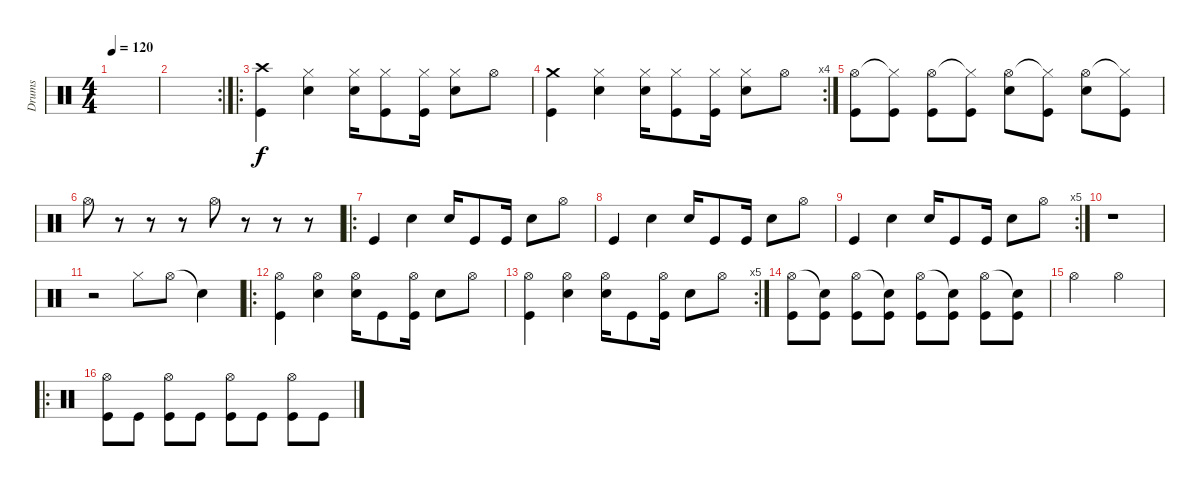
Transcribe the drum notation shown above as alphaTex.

\track ("Drums" "Drums") {instrument percussion}
\staff {score}
\articulation defaults
\ts (4 4)
\tempo 120
\clef neutral
\ks c
|
\rc 2
|
\ro
("Crash high (hit)" "Kick (hit)").4 ("Hi-Hat (closed)" "Snare (hit) 2").4 ("Hi-Hat (closed)" "Snare (hit) 2").16 ("Hi-Hat (closed)" "Kick (hit)").8 ("Hi-Hat (closed)" "Kick (hit)").16 ("Hi-Hat (closed)" "Snare (hit) 2").8 "Hi-Hat (open)".8 |
\rc 4
("Crash medium (hit)" "Kick (hit)").4 ("Hi-Hat (closed)" "Snare (hit) 2").4 ("Hi-Hat (closed)" "Snare (hit) 2").16 ("Hi-Hat (closed)" "Kick (hit)").8 ("Hi-Hat (closed)" "Kick (hit)").16 ("Hi-Hat (closed)" "Snare (hit) 2").8 "Hi-Hat (open)".8 |
("Hi-Hat (open)" "Kick (hit)").8 ("Hi-Hat (closed)"{t} "Kick (hit)").8 ("Hi-Hat (open)" "Kick (hit)").8 ("Hi-Hat (closed)"{t} "Kick (hit)").8 ("Hi-Hat (open)" "Snare (hit) 2").8 ("Hi-Hat (closed)"{t} "Kick (hit)").8 ("Hi-Hat (open)" "Snare (hit) 2").8 ("Hi-Hat (closed)"{t} "Kick (hit)").8 |
"Hi-Hat (open)".8 r.8 r.8 r.8 "Hi-Hat (open)".8 r.8 r.8 r.8 |
\ro "Kick (hit)".4 "Snare (hit) 2".4 "Snare (hit) 2".16 "Kick (hit)".8 "Kick (hit)".16 "Snare (hit) 2".8 "Hi-Hat (open)".8
|
"Kick (hit)".4 "Snare (hit) 2".4 "Snare (hit) 2".16 "Kick (hit)".8 "Kick (hit)".16 "Snare (hit) 2".8 "Hi-Hat (open)".8 |
\rc 5 "Kick (hit)".4 "Snare (hit) 2".4 "Snare (hit) 2".16 "Kick (hit)".8 "Kick (hit)".16 "Snare (hit) 2".8 "Hi-Hat (open)".8
|
r.1 |
r.2 "Hi-Hat (closed)".8 "Hi-Hat (open)".8 "Snare (hit)"{t}.4 |
\ro
("Hi-Hat (open)" "Kick (hit)").4 ("Hi-Hat (open)" "Snare (hit) 2").4 ("Hi-Hat (open)" "Snare (hit) 2").16 "Kick (hit)".8 ("Hi-Hat (open)" "Kick (hit)").16 "Snare (hit) 2".8 "Hi-Hat (open)".8 |
\rc 5
("Hi-Hat (open)" "Kick (hit)").4 ("Hi-Hat (open)" "Snare (hit) 2").4 ("Hi-Hat (open)" "Snare (hit) 2").16 "Kick (hit)".8 ("Hi-Hat (open)" "Kick (hit)").16 "Snare (hit) 2".8 "Hi-Hat (open)".8 |
("Hi-Hat (open)" "Kick (hit)").8 ("Snare (hit)"{t} "Kick (hit)").8 ("Hi-Hat (open)" "Kick (hit)").8 ("Snare (hit)"{t} "Kick (hit)").8 ("Hi-Hat (open)" "Kick (hit)").8 ("Snare (hit)"{t} "Kick (hit)").8 ("Hi-Hat (open)" "Kick (hit)").8 ("Snare (hit)"{t} "Kick (hit)").8 |
"Hi-Hat (open)".2 "Hi-Hat (open)".2 |
\ro
("Hi-Hat (open)" "Kick (hit)").8 "Kick (hit)".8 ("Hi-Hat (open)" "Kick (hit)").8 "Kick (hit)".8 ("Hi-Hat (open)" "Kick (hit)").8 "Kick (hit)".8 ("Hi-Hat (open)" "Kick (hit)").8 "Kick (hit)".8
